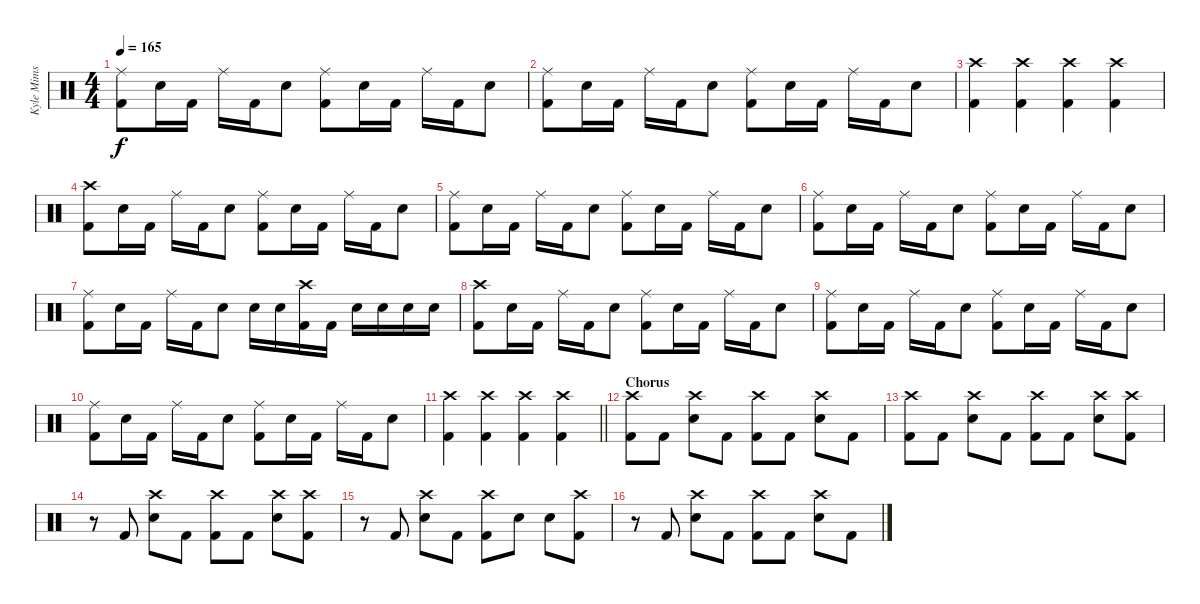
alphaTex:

\track ("Kyle Mims" "Kyle Mims") {instrument percussion}
\staff {score}
\articulation defaults
\ts (4 4)
\tempo 165
\clef neutral
\ks c
("Ride (middle)" "Kick (hit) 2").8{dy f} "Electric Snare (hit)".16 "Kick (hit) 2".16 "Ride (middle)".16 "Kick (hit) 2".16 "Electric Snare (hit)".8 ("Ride (middle)" "Kick (hit) 2").8 "Electric Snare (hit)".16 "Kick (hit) 2".16 "Ride (middle)".16 "Kick (hit) 2".16 "Electric Snare (hit)".8 |
("Ride (middle)" "Kick (hit) 2").8 "Electric Snare (hit)".16 "Kick (hit) 2".16 "Ride (middle)".16 "Kick (hit) 2".16 "Electric Snare (hit)".8 ("Ride (middle)" "Kick (hit) 2").8 "Electric Snare (hit)".16 "Kick (hit) 2".16 "Ride (middle)".16 "Kick (hit) 2".16 "Electric Snare (hit)".8 |
("Crash high (hit)" "Kick (hit) 2").4 ("Crash high (hit)" "Kick (hit) 2").4 ("Crash high (hit)" "Kick (hit) 2").4 ("Crash high (hit)" "Kick (hit) 2").4 |
("Crash high (hit)" "Kick (hit) 2").8 "Electric Snare (hit)".16 "Kick (hit) 2".16 "Ride (middle)".16 "Kick (hit) 2".16 "Electric Snare (hit)".8 ("Ride (middle)" "Kick (hit) 2").8 "Electric Snare (hit)".16 "Kick (hit) 2".16 "Ride (middle)".16 "Kick (hit) 2".16 "Electric Snare (hit)".8 |
("Ride (middle)" "Kick (hit) 2").8 "Electric Snare (hit)".16 "Kick (hit) 2".16 "Ride (middle)".16 "Kick (hit) 2".16 "Electric Snare (hit)".8 ("Ride (middle)" "Kick (hit) 2").8 "Electric Snare (hit)".16 "Kick (hit) 2".16 "Ride (middle)".16 "Kick (hit) 2".16 "Electric Snare (hit)".8 |
("Ride (middle)" "Kick (hit) 2").8 "Electric Snare (hit)".16 "Kick (hit) 2".16 "Ride (middle)".16 "Kick (hit) 2".16 "Electric Snare (hit)".8 ("Ride (middle)" "Kick (hit) 2").8 "Electric Snare (hit)".16 "Kick (hit) 2".16 "Ride (middle)".16 "Kick (hit) 2".16 "Electric Snare (hit)".8 |
("Ride (middle)" "Kick (hit) 2").8 "Electric Snare (hit)".16 "Kick (hit) 2".16 "Ride (middle)".16 "Kick (hit) 2".16 "Electric Snare (hit)".8 "Electric Snare (hit)".16 "Electric Snare (hit)".16 ("Crash high (hit)" "Kick (hit) 2").16 "Kick (hit) 2".16 "Electric Snare (hit)".16 "Electric Snare (hit)".16 "Electric Snare (hit)".16 "Electric Snare (hit)".16 |
("Crash high (hit)" "Kick (hit) 2").8 "Electric Snare (hit)".16 "Kick (hit) 2".16 "Ride (middle)".16 "Kick (hit) 2".16 "Electric Snare (hit)".8 ("Ride (middle)" "Kick (hit) 2").8 "Electric Snare (hit)".16 "Kick (hit) 2".16 "Ride (middle)".16 "Kick (hit) 2".16 "Electric Snare (hit)".8 |
("Ride (middle)" "Kick (hit) 2").8 "Electric Snare (hit)".16 "Kick (hit) 2".16 "Ride (middle)".16 "Kick (hit) 2".16 "Electric Snare (hit)".8 ("Ride (middle)" "Kick (hit) 2").8 "Electric Snare (hit)".16 "Kick (hit) 2".16 "Ride (middle)".16 "Kick (hit) 2".16 "Electric Snare (hit)".8 |
("Ride (middle)" "Kick (hit) 2").8 "Electric Snare (hit)".16 "Kick (hit) 2".16 "Ride (middle)".16 "Kick (hit) 2".16 "Electric Snare (hit)".8 ("Ride (middle)" "Kick (hit) 2").8 "Electric Snare (hit)".16 "Kick (hit) 2".16 "Ride (middle)".16 "Kick (hit) 2".16 "Electric Snare (hit)".8 |
\barLineRight lightlight
("Crash high (hit)" "Kick (hit) 2").4 ("Crash high (hit)" "Kick (hit) 2").4 ("Crash high (hit)" "Kick (hit) 2").4 ("Crash high (hit)" "Kick (hit) 2").4 |
\section ("" "Chorus")
("Crash high (hit)" "Kick (hit) 2").8 "Kick (hit) 2".8 ("Crash high (hit)" "Electric Snare (hit)").8 "Kick (hit) 2".8 ("Crash high (hit)" "Kick (hit) 2").8 "Kick (hit) 2".8 ("Crash high (hit)" "Electric Snare (hit)").8 "Kick (hit) 2".8 |
("Crash high (hit)" "Kick (hit) 2").8 "Kick (hit) 2".8 ("Crash high (hit)" "Electric Snare (hit)").8 "Kick (hit) 2".8 ("Crash high (hit)" "Kick (hit) 2").8 "Kick (hit) 2".8 ("Crash high (hit)" "Electric Snare (hit)").8 ("Crash high (hit)" "Kick (hit) 2").8 |
r.8 "Kick (hit) 2".8 ("Crash high (hit)" "Electric Snare (hit)").8 "Kick (hit) 2".8 ("Crash high (hit)" "Kick (hit) 2").8 "Kick (hit) 2".8 ("Crash high (hit)" "Electric Snare (hit)").8 ("Crash high (hit)" "Kick (hit) 2").8 |
r.8 "Kick (hit) 2".8 ("Crash high (hit)" "Electric Snare (hit)").8 "Kick (hit) 2".8 ("Crash high (hit)" "Kick (hit) 2").8 "Electric Snare (hit)".8 "Electric Snare (hit)".8 ("Crash high (hit)" "Kick (hit) 2").8 |
r.8 "Kick (hit) 2".8 ("Crash high (hit)" "Electric Snare (hit)").8 "Kick (hit) 2".8 ("Crash high (hit)" "Kick (hit) 2").8 "Kick (hit) 2".8 ("Crash high (hit)" "Electric Snare (hit)").8 "Kick (hit) 2".8
